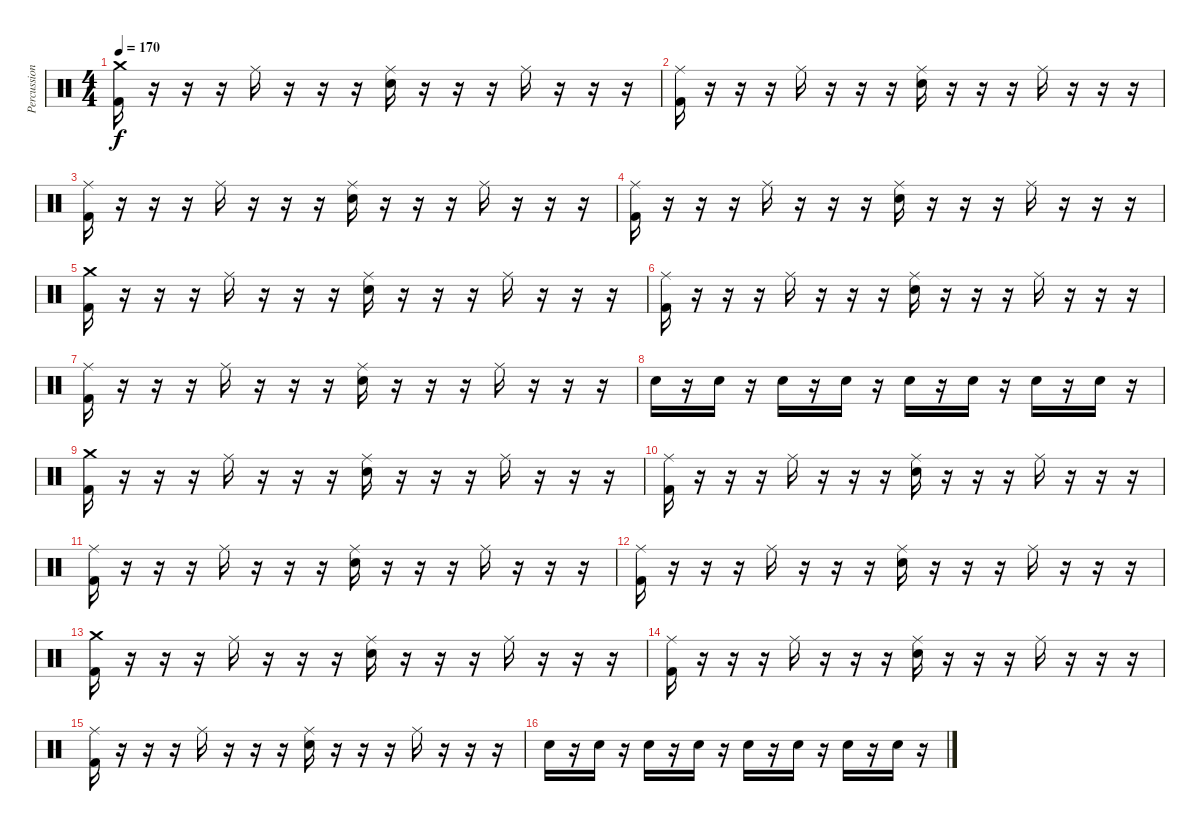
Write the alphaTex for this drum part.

\track ("Percussion" "Percussion") {instrument percussion}
\staff {score}
\articulation defaults
\ts (4 4)
\tempo 170
\clef neutral
\ks c
("Crash medium (hit)" "Kick (hit) 2").16{dy f} r.16 r.16 r.16 "Ride (middle)".16 r.16 r.16 r.16 ("Ride (middle)" "Snare (hit) 2").16 r.16 r.16 r.16 "Ride (middle)".16 r.16 r.16 r.16 |
("Ride (middle)" "Kick (hit) 2").16 r.16 r.16 r.16 "Ride (middle)".16 r.16 r.16 r.16 ("Ride (middle)" "Snare (hit) 2").16 r.16 r.16 r.16 "Ride (middle)".16 r.16 r.16 r.16 |
("Ride (middle)" "Kick (hit) 2").16 r.16 r.16 r.16 "Ride (middle)".16 r.16 r.16 r.16 ("Ride (middle)" "Snare (hit) 2").16 r.16 r.16 r.16 "Ride (middle)".16 r.16 r.16 r.16 |
("Ride (middle)" "Kick (hit) 2").16 r.16 r.16 r.16 "Ride (middle)".16 r.16 r.16 r.16 ("Ride (middle)" "Snare (hit) 2").16 r.16 r.16 r.16 "Ride (middle)".16 r.16 r.16 r.16 |
("Crash medium (hit)" "Kick (hit) 2").16 r.16 r.16 r.16 "Ride (middle)".16 r.16 r.16 r.16 ("Ride (middle)" "Snare (hit) 2").16 r.16 r.16 r.16 "Ride (middle)".16 r.16 r.16 r.16 |
("Ride (middle)" "Kick (hit) 2").16 r.16 r.16 r.16 "Ride (middle)".16 r.16 r.16 r.16 ("Ride (middle)" "Snare (hit) 2").16 r.16 r.16 r.16 "Ride (middle)".16 r.16 r.16 r.16 |
("Ride (middle)" "Kick (hit) 2").16 r.16 r.16 r.16 "Ride (middle)".16 r.16 r.16 r.16 ("Ride (middle)" "Snare (hit) 2").16 r.16 r.16 r.16 "Ride (middle)".16 r.16 r.16 r.16 |
"Snare (hit) 2".16 r.16 "Snare (hit) 2".16 r.16 "Snare (hit) 2".16 r.16 "Snare (hit) 2".16 r.16 "Snare (hit) 2".16 r.16 "Snare (hit) 2".16 r.16 "Snare (hit) 2".16 r.16 "Snare (hit) 2".16 r.16 |
("Crash medium (hit)" "Kick (hit) 2").16 r.16 r.16 r.16 "Ride (middle)".16 r.16 r.16 r.16 ("Ride (middle)" "Snare (hit) 2").16 r.16 r.16 r.16 "Ride (middle)".16 r.16 r.16 r.16 |
("Ride (middle)" "Kick (hit) 2").16 r.16 r.16 r.16 "Ride (middle)".16 r.16 r.16 r.16 ("Ride (middle)" "Snare (hit) 2").16 r.16 r.16 r.16 "Ride (middle)".16 r.16 r.16 r.16 |
("Ride (middle)" "Kick (hit) 2").16 r.16 r.16 r.16 "Ride (middle)".16 r.16 r.16 r.16 ("Ride (middle)" "Snare (hit) 2").16 r.16 r.16 r.16 "Ride (middle)".16 r.16 r.16 r.16 |
("Ride (middle)" "Kick (hit) 2").16 r.16 r.16 r.16 "Ride (middle)".16 r.16 r.16 r.16 ("Ride (middle)" "Snare (hit) 2").16 r.16 r.16 r.16 "Ride (middle)".16 r.16 r.16 r.16 |
("Crash medium (hit)" "Kick (hit) 2").16 r.16 r.16 r.16 "Ride (middle)".16 r.16 r.16 r.16 ("Ride (middle)" "Snare (hit) 2").16 r.16 r.16 r.16 "Ride (middle)".16 r.16 r.16 r.16 |
("Ride (middle)" "Kick (hit) 2").16 r.16 r.16 r.16 "Ride (middle)".16 r.16 r.16 r.16 ("Ride (middle)" "Snare (hit) 2").16 r.16 r.16 r.16 "Ride (middle)".16 r.16 r.16 r.16 |
("Ride (middle)" "Kick (hit) 2").16 r.16 r.16 r.16 "Ride (middle)".16 r.16 r.16 r.16 ("Ride (middle)" "Snare (hit) 2").16 r.16 r.16 r.16 "Ride (middle)".16 r.16 r.16 r.16 |
"Snare (hit) 2".16 r.16 "Snare (hit) 2".16 r.16 "Snare (hit) 2".16 r.16 "Snare (hit) 2".16 r.16 "Snare (hit) 2".16 r.16 "Snare (hit) 2".16 r.16 "Snare (hit) 2".16 r.16 "Snare (hit) 2".16 r.16
